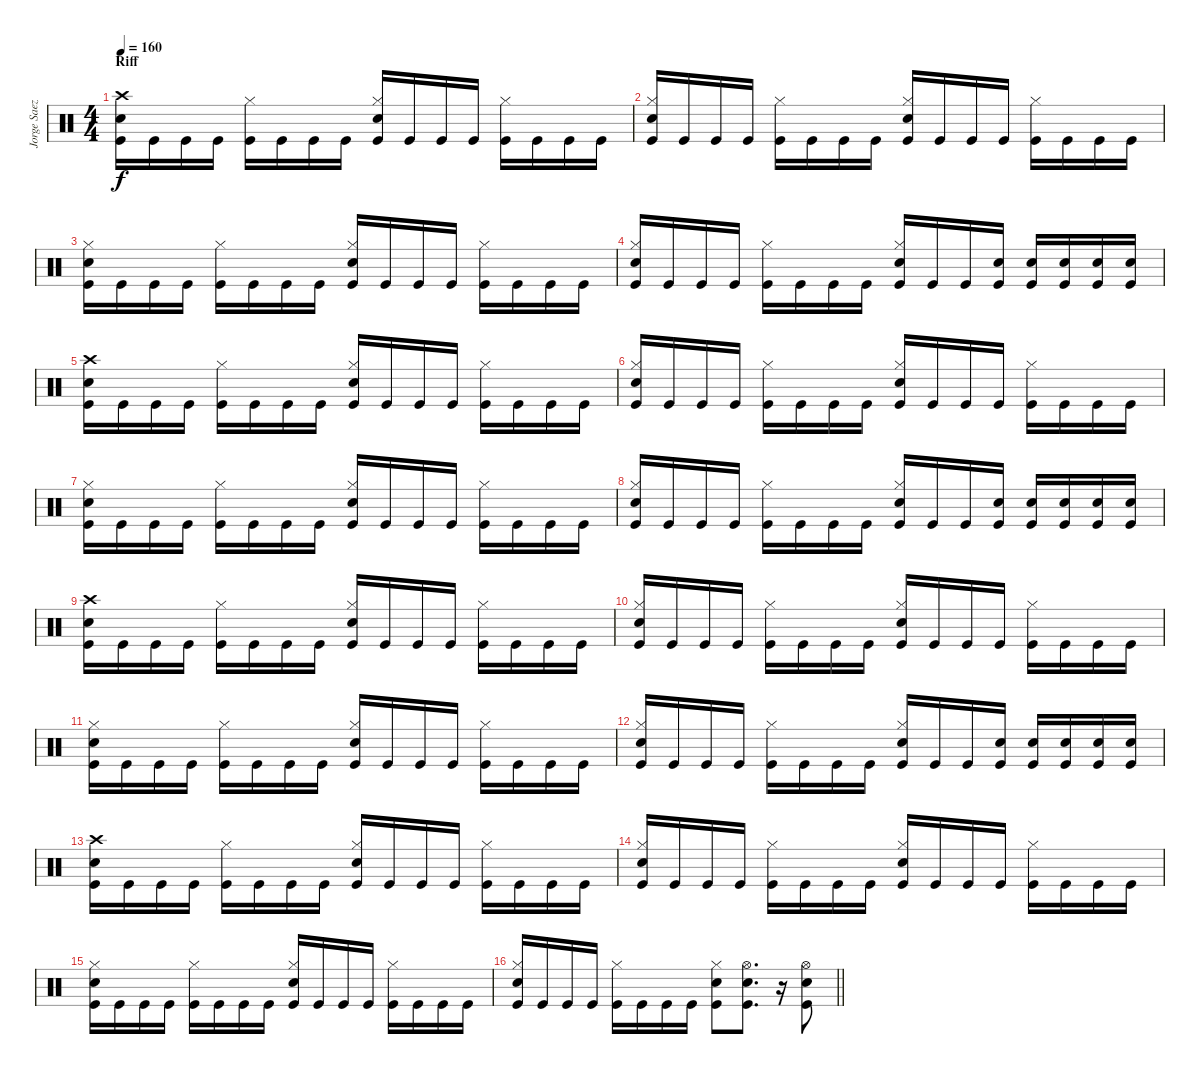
\track ("Jorge Saez" "Jorge Saez") {instrument percussion}
\staff {score}
\articulation defaults
\ts (4 4)
\section ("" "Riff")
\tempo 160
\clef neutral
\ks c
("Crash high (hit)" "Electric Snare (hit)" "Kick (hit)").16{dy f} "Kick (hit)".16 "Kick (hit)".16 "Kick (hit)".16 ("Hi-Hat (closed)" "Kick (hit)").16 "Kick (hit)".16 "Kick (hit)".16 "Kick (hit)".16 ("Hi-Hat (closed)" "Snare (hit) 2" "Kick (hit)").16 "Kick (hit)".16 "Kick (hit)".16 "Kick (hit)".16 ("Hi-Hat (closed)" "Kick (hit)").16 "Kick (hit)".16 "Kick (hit)".16 "Kick (hit)".16 |
("Hi-Hat (closed)" "Snare (hit) 2" "Kick (hit)").16 "Kick (hit)".16 "Kick (hit)".16 "Kick (hit)".16 ("Hi-Hat (closed)" "Kick (hit)").16 "Kick (hit)".16 "Kick (hit)".16 "Kick (hit)".16 ("Hi-Hat (closed)" "Snare (hit) 2" "Kick (hit)").16 "Kick (hit)".16 "Kick (hit)".16 "Kick (hit)".16 ("Hi-Hat (closed)" "Kick (hit)").16 "Kick (hit)".16 "Kick (hit)".16 "Kick (hit)".16 |
("Hi-Hat (closed)" "Electric Snare (hit)" "Kick (hit)").16 "Kick (hit)".16 "Kick (hit)".16 "Kick (hit)".16 ("Hi-Hat (closed)" "Kick (hit)").16 "Kick (hit)".16 "Kick (hit)".16 "Kick (hit)".16 ("Hi-Hat (closed)" "Snare (hit) 2" "Kick (hit)").16 "Kick (hit)".16 "Kick (hit)".16 "Kick (hit)".16 ("Hi-Hat (closed)" "Kick (hit)").16 "Kick (hit)".16 "Kick (hit)".16 "Kick (hit)".16 |
("Hi-Hat (closed)" "Snare (hit) 2" "Kick (hit)").16 "Kick (hit)".16 "Kick (hit)".16 "Kick (hit)".16 ("Hi-Hat (closed)" "Kick (hit)").16 "Kick (hit)".16 "Kick (hit)".16 "Kick (hit)".16 ("Hi-Hat (closed)" "Snare (hit) 2" "Kick (hit)").16 "Kick (hit)".16 "Kick (hit)".16 ("Electric Snare (hit)" "Kick (hit)").16 ("Electric Snare (hit)" "Kick (hit)").16 ("Electric Snare (hit)" "Kick (hit)").16 ("Electric Snare (hit)" "Kick (hit)").16 ("Electric Snare (hit)" "Kick (hit)").16 |
("Crash high (hit)" "Electric Snare (hit)" "Kick (hit)").16 "Kick (hit)".16 "Kick (hit)".16 "Kick (hit)".16 ("Hi-Hat (closed)" "Kick (hit)").16 "Kick (hit)".16 "Kick (hit)".16 "Kick (hit)".16 ("Hi-Hat (closed)" "Snare (hit) 2" "Kick (hit)").16 "Kick (hit)".16 "Kick (hit)".16 "Kick (hit)".16 ("Hi-Hat (closed)" "Kick (hit)").16 "Kick (hit)".16 "Kick (hit)".16 "Kick (hit)".16 |
("Hi-Hat (closed)" "Snare (hit) 2" "Kick (hit)").16 "Kick (hit)".16 "Kick (hit)".16 "Kick (hit)".16 ("Hi-Hat (closed)" "Kick (hit)").16 "Kick (hit)".16 "Kick (hit)".16 "Kick (hit)".16 ("Hi-Hat (closed)" "Snare (hit) 2" "Kick (hit)").16 "Kick (hit)".16 "Kick (hit)".16 "Kick (hit)".16 ("Hi-Hat (closed)" "Kick (hit)").16 "Kick (hit)".16 "Kick (hit)".16 "Kick (hit)".16 |
("Hi-Hat (closed)" "Electric Snare (hit)" "Kick (hit)").16 "Kick (hit)".16 "Kick (hit)".16 "Kick (hit)".16 ("Hi-Hat (closed)" "Kick (hit)").16 "Kick (hit)".16 "Kick (hit)".16 "Kick (hit)".16 ("Hi-Hat (closed)" "Snare (hit) 2" "Kick (hit)").16 "Kick (hit)".16 "Kick (hit)".16 "Kick (hit)".16 ("Hi-Hat (closed)" "Kick (hit)").16 "Kick (hit)".16 "Kick (hit)".16 "Kick (hit)".16 |
("Hi-Hat (closed)" "Snare (hit) 2" "Kick (hit)").16 "Kick (hit)".16 "Kick (hit)".16 "Kick (hit)".16 ("Hi-Hat (closed)" "Kick (hit)").16 "Kick (hit)".16 "Kick (hit)".16 "Kick (hit)".16 ("Hi-Hat (closed)" "Snare (hit) 2" "Kick (hit)").16 "Kick (hit)".16 "Kick (hit)".16 ("Electric Snare (hit)" "Kick (hit)").16 ("Electric Snare (hit)" "Kick (hit)").16 ("Electric Snare (hit)" "Kick (hit)").16 ("Electric Snare (hit)" "Kick (hit)").16 ("Electric Snare (hit)" "Kick (hit)").16 |
("Crash high (hit)" "Electric Snare (hit)" "Kick (hit)").16 "Kick (hit)".16 "Kick (hit)".16 "Kick (hit)".16 ("Hi-Hat (closed)" "Kick (hit)").16 "Kick (hit)".16 "Kick (hit)".16 "Kick (hit)".16 ("Hi-Hat (closed)" "Snare (hit) 2" "Kick (hit)").16 "Kick (hit)".16 "Kick (hit)".16 "Kick (hit)".16 ("Hi-Hat (closed)" "Kick (hit)").16 "Kick (hit)".16 "Kick (hit)".16 "Kick (hit)".16 |
("Hi-Hat (closed)" "Snare (hit) 2" "Kick (hit)").16 "Kick (hit)".16 "Kick (hit)".16 "Kick (hit)".16 ("Hi-Hat (closed)" "Kick (hit)").16 "Kick (hit)".16 "Kick (hit)".16 "Kick (hit)".16 ("Hi-Hat (closed)" "Snare (hit) 2" "Kick (hit)").16 "Kick (hit)".16 "Kick (hit)".16 "Kick (hit)".16 ("Hi-Hat (closed)" "Kick (hit)").16 "Kick (hit)".16 "Kick (hit)".16 "Kick (hit)".16 |
("Hi-Hat (closed)" "Electric Snare (hit)" "Kick (hit)").16 "Kick (hit)".16 "Kick (hit)".16 "Kick (hit)".16 ("Hi-Hat (closed)" "Kick (hit)").16 "Kick (hit)".16 "Kick (hit)".16 "Kick (hit)".16 ("Hi-Hat (closed)" "Snare (hit) 2" "Kick (hit)").16 "Kick (hit)".16 "Kick (hit)".16 "Kick (hit)".16 ("Hi-Hat (closed)" "Kick (hit)").16 "Kick (hit)".16 "Kick (hit)".16 "Kick (hit)".16 |
("Hi-Hat (closed)" "Snare (hit) 2" "Kick (hit)").16 "Kick (hit)".16 "Kick (hit)".16 "Kick (hit)".16 ("Hi-Hat (closed)" "Kick (hit)").16 "Kick (hit)".16 "Kick (hit)".16 "Kick (hit)".16 ("Hi-Hat (closed)" "Snare (hit) 2" "Kick (hit)").16 "Kick (hit)".16 "Kick (hit)".16 ("Electric Snare (hit)" "Kick (hit)").16 ("Electric Snare (hit)" "Kick (hit)").16 ("Electric Snare (hit)" "Kick (hit)").16 ("Electric Snare (hit)" "Kick (hit)").16 ("Electric Snare (hit)" "Kick (hit)").16 |
("Crash high (hit)" "Electric Snare (hit)" "Kick (hit)").16 "Kick (hit)".16 "Kick (hit)".16 "Kick (hit)".16 ("Hi-Hat (closed)" "Kick (hit)").16 "Kick (hit)".16 "Kick (hit)".16 "Kick (hit)".16 ("Hi-Hat (closed)" "Snare (hit) 2" "Kick (hit)").16 "Kick (hit)".16 "Kick (hit)".16 "Kick (hit)".16 ("Hi-Hat (closed)" "Kick (hit)").16 "Kick (hit)".16 "Kick (hit)".16 "Kick (hit)".16 |
("Hi-Hat (closed)" "Snare (hit) 2" "Kick (hit)").16 "Kick (hit)".16 "Kick (hit)".16 "Kick (hit)".16 ("Hi-Hat (closed)" "Kick (hit)").16 "Kick (hit)".16 "Kick (hit)".16 "Kick (hit)".16 ("Hi-Hat (closed)" "Snare (hit) 2" "Kick (hit)").16 "Kick (hit)".16 "Kick (hit)".16 "Kick (hit)".16 ("Hi-Hat (closed)" "Kick (hit)").16 "Kick (hit)".16 "Kick (hit)".16 "Kick (hit)".16 |
("Hi-Hat (closed)" "Electric Snare (hit)" "Kick (hit)").16 "Kick (hit)".16 "Kick (hit)".16 "Kick (hit)".16 ("Hi-Hat (closed)" "Kick (hit)").16 "Kick (hit)".16 "Kick (hit)".16 "Kick (hit)".16 ("Hi-Hat (closed)" "Snare (hit) 2" "Kick (hit)").16 "Kick (hit)".16 "Kick (hit)".16 "Kick (hit)".16 ("Hi-Hat (closed)" "Kick (hit)").16 "Kick (hit)".16 "Kick (hit)".16 "Kick (hit)".16 |
\barLineRight lightlight
("Hi-Hat (closed)" "Snare (hit) 2" "Kick (hit)").16 "Kick (hit)".16 "Kick (hit)".16 "Kick (hit)".16 ("Hi-Hat (closed)" "Kick (hit)").16 "Kick (hit)".16 "Kick (hit)".16 "Kick (hit)".16 ("Hi-Hat (closed)" "Snare (hit) 2" "Kick (hit)").8 ("Hi-Hat (open)" "Electric Snare (hit)" "Kick (hit)").8{d} r.16 ("Hi-Hat (open)" "Electric Snare (hit)" "Kick (hit)").8
